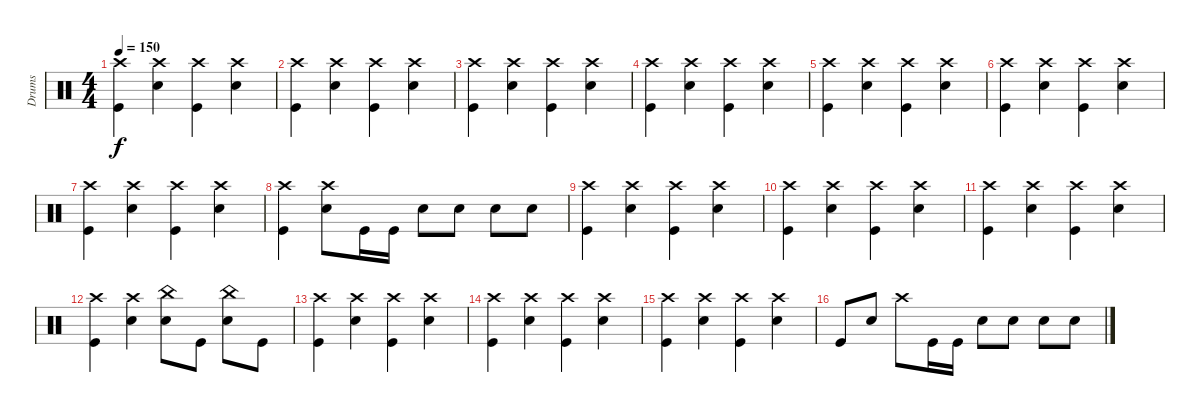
\track ("Drums" "Drums") {instrument percussion}
\staff {score}
\articulation defaults
\ts (4 4)
\tempo 150
\clef neutral
\ks c
("Kick (hit)" "Crash high (hit)").4{dy f} ("Snare (hit) 2" "Crash high (hit)").4 ("Kick (hit)" "Crash high (hit)").4 ("Snare (hit) 2" "Crash high (hit)").4 |
("Kick (hit)" "Crash high (hit)").4 ("Snare (hit) 2" "Crash high (hit)").4 ("Kick (hit)" "Crash high (hit)").4 ("Snare (hit) 2" "Crash high (hit)").4 |
("Kick (hit)" "Crash high (hit)").4 ("Snare (hit) 2" "Crash high (hit)").4 ("Kick (hit)" "Crash high (hit)").4 ("Snare (hit) 2" "Crash high (hit)").4 |
("Kick (hit)" "Crash high (hit)").4 ("Snare (hit) 2" "Crash high (hit)").4 ("Kick (hit)" "Crash high (hit)").4 ("Snare (hit) 2" "Crash high (hit)").4 |
("Kick (hit)" "Crash high (hit)").4 ("Snare (hit) 2" "Crash high (hit)").4 ("Kick (hit)" "Crash high (hit)").4 ("Snare (hit) 2" "Crash high (hit)").4 |
("Kick (hit)" "Crash high (hit)").4 ("Snare (hit) 2" "Crash high (hit)").4 ("Kick (hit)" "Crash high (hit)").4 ("Snare (hit) 2" "Crash high (hit)").4 |
("Kick (hit)" "Crash high (hit)").4 ("Snare (hit) 2" "Crash high (hit)").4 ("Kick (hit)" "Crash high (hit)").4 ("Snare (hit) 2" "Crash high (hit)").4 |
("Kick (hit)" "Crash high (hit)").4 ("Snare (hit) 2" "Crash high (hit)").8 "Kick (hit)".16 "Kick (hit)".16 "Snare (hit) 2".8 "Snare (hit) 2".8 "Snare (hit) 2".8 "Snare (hit) 2".8 |
("Kick (hit)" "Crash high (hit)").4 ("Snare (hit) 2" "Crash high (hit)").4 ("Kick (hit)" "Crash high (hit)").4 ("Snare (hit) 2" "Crash high (hit)").4 |
("Kick (hit)" "Crash high (hit)").4 ("Snare (hit) 2" "Crash high (hit)").4 ("Kick (hit)" "Crash high (hit)").4 ("Snare (hit) 2" "Crash high (hit)").4 |
("Kick (hit)" "Crash high (hit)").4 ("Snare (hit) 2" "Crash high (hit)").4 ("Kick (hit)" "Crash high (hit)").4 ("Snare (hit) 2" "Crash high (hit)").4 |
("Kick (hit)" "Crash high (hit)").4 ("Snare (hit) 2" "Crash high (hit)").4 ("Snare (hit) 2" "China (hit)").8 "Kick (hit)".8 ("Snare (hit) 2" "China (hit)").8 "Kick (hit)".8 |
("Kick (hit)" "Crash high (hit)").4 ("Snare (hit) 2" "Crash high (hit)").4 ("Kick (hit)" "Crash high (hit)").4 ("Snare (hit) 2" "Crash high (hit)").4 |
("Kick (hit)" "Crash high (hit)").4 ("Snare (hit) 2" "Crash high (hit)").4 ("Kick (hit)" "Crash high (hit)").4 ("Snare (hit) 2" "Crash high (hit)").4 |
("Kick (hit)" "Crash high (hit)").4 ("Snare (hit) 2" "Crash high (hit)").4 ("Kick (hit)" "Crash high (hit)").4 ("Snare (hit) 2" "Crash high (hit)").4 |
"Kick (hit)".8 "Snare (hit) 2".8 "Crash high (hit)".8 "Kick (hit)".16 "Kick (hit)".16 "Snare (hit) 2".8 "Snare (hit) 2".8 "Snare (hit) 2".8 "Snare (hit) 2".8
